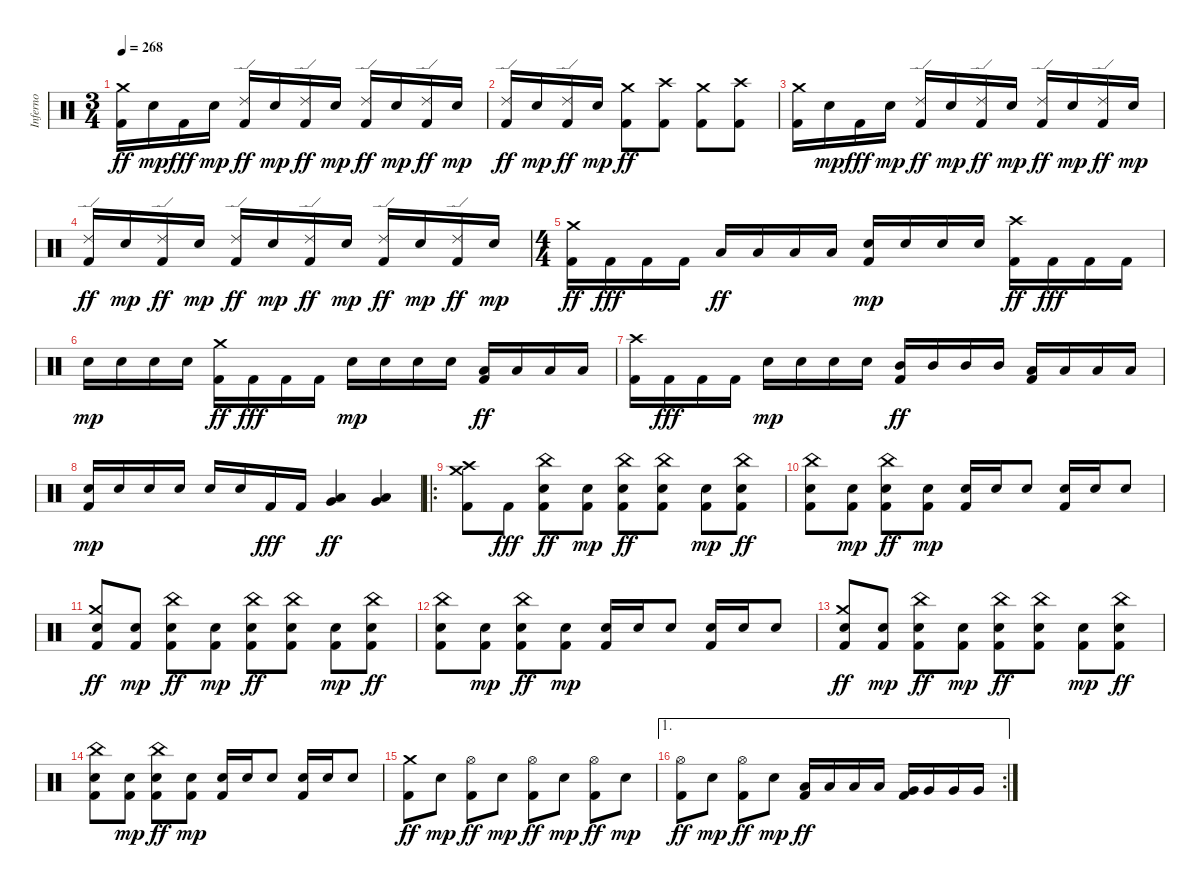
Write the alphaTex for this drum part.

\track ("Inferno" "Inferno") {instrument percussion}
\staff {score}
\articulation defaults
\ts (3 4)
\tempo 268
\clef neutral
\ks c
("Kick (hit) 2" "Crash medium (hit)").16{dy ff} "Electric Snare (hit)".16{dy mp} "Kick (hit) 2".16{dy fff} "Electric Snare (hit)".16{dy mp} ("Kick (hit) 2" "Ride (edge) 2").16{dy ff} "Electric Snare (hit)".16{dy mp} ("Kick (hit) 2" "Ride (edge) 2").16{dy ff} "Electric Snare (hit)".16{dy mp} ("Kick (hit) 2" "Ride (edge) 2").16{dy ff} "Electric Snare (hit)".16{dy mp} ("Kick (hit) 2" "Ride (edge) 2").16{dy ff} "Electric Snare (hit)".16{dy mp} |
("Kick (hit) 2" "Ride (edge) 2").16{dy ff} "Electric Snare (hit)".16{dy mp} ("Kick (hit) 2" "Ride (edge) 2").16{dy ff} "Electric Snare (hit)".16{dy mp} ("Kick (hit) 2" "Crash medium (hit)").8{dy ff} ("Kick (hit) 2" "Crash high (hit)").8 ("Kick (hit) 2" "Crash medium (hit)").8 ("Kick (hit) 2" "Crash high (hit)").8 |
("Kick (hit) 2" "Crash medium (hit)").16 "Electric Snare (hit)".16{dy mp} "Kick (hit) 2".16{dy fff} "Electric Snare (hit)".16{dy mp} ("Kick (hit) 2" "Ride (edge) 2").16{dy ff} "Electric Snare (hit)".16{dy mp} ("Kick (hit) 2" "Ride (edge) 2").16{dy ff} "Electric Snare (hit)".16{dy mp} ("Kick (hit) 2" "Ride (edge) 2").16{dy ff} "Electric Snare (hit)".16{dy mp} ("Kick (hit) 2" "Ride (edge) 2").16{dy ff} "Electric Snare (hit)".16{dy mp} |
("Kick (hit) 2" "Ride (edge) 2").16{dy ff} "Electric Snare (hit)".16{dy mp} ("Kick (hit) 2" "Ride (edge) 2").16{dy ff} "Electric Snare (hit)".16{dy mp} ("Kick (hit) 2" "Ride (edge) 2").16{dy ff} "Electric Snare (hit)".16{dy mp} ("Kick (hit) 2" "Ride (edge) 2").16{dy ff} "Electric Snare (hit)".16{dy mp} ("Kick (hit) 2" "Ride (edge) 2").16{dy ff} "Electric Snare (hit)".16{dy mp} ("Kick (hit) 2" "Ride (edge) 2").16{dy ff} "Electric Snare (hit)".16{dy mp} |
\ts (4 4)
("Kick (hit) 2" "Crash medium (hit)").16{dy ff} "Kick (hit) 2".16{dy fff} "Kick (hit) 2".16 "Kick (hit) 2".16 "Low Tom (hit)".16{dy ff} "Low Tom (hit)".16 "Low Tom (hit)".16 "Low Tom (hit)".16 ("Kick (hit) 2" "Electric Snare (hit)").16{dy mp} "Electric Snare (hit)".16 "Electric Snare (hit)".16 "Electric Snare (hit)".16 ("Kick (hit) 2" "Crash high (hit)").16{dy ff} "Kick (hit) 2".16{dy fff} "Kick (hit) 2".16 "Kick (hit) 2".16 |
"Electric Snare (hit)".16{dy mp} "Electric Snare (hit)".16 "Electric Snare (hit)".16 "Electric Snare (hit)".16 ("Kick (hit) 2" "Crash medium (hit)").16{dy ff} "Kick (hit) 2".16{dy fff} "Kick (hit) 2".16 "Kick (hit) 2".16 "Electric Snare (hit)".16{dy mp} "Electric Snare (hit)".16 "Electric Snare (hit)".16 "Electric Snare (hit)".16 ("Kick (hit) 2" "Low Tom (hit)").16{dy ff} "Low Tom (hit)".16 "Low Tom (hit)".16 "Low Tom (hit)".16 |
("Kick (hit) 2" "Crash high (hit)").16 "Kick (hit) 2".16{dy fff} "Kick (hit) 2".16 "Kick (hit) 2".16 "Electric Snare (hit)".16{dy mp} "Electric Snare (hit)".16 "Electric Snare (hit)".16 "Electric Snare (hit)".16 ("Kick (hit) 2" "Mid Tom (hit)").16{dy ff} "Mid Tom (hit)".16 "Mid Tom (hit)".16 "Mid Tom (hit)".16 ("Kick (hit) 2" "Low Tom (hit)").16 "Low Tom (hit)".16 "Low Tom (hit)".16 "Low Tom (hit)".16 |
("Kick (hit) 2" "Electric Snare (hit)").16{dy mp} "Electric Snare (hit)".16 "Electric Snare (hit)".16 "Electric Snare (hit)".16 "Electric Snare (hit)".16 "Electric Snare (hit)".16 "Kick (hit) 2".16{dy fff} "Kick (hit) 2".16 ("Very Low Tom (hit)" "Low Floor Tom (hit)").4{dy ff} ("Very Low Tom (hit)" "Low Floor Tom (hit)").4 |
\ro
("Kick (hit) 2" "Crash medium (hit)" "Crash high (hit)").8 "Kick (hit) 2".8{dy fff} ("Kick (hit) 2" "Electric Snare (hit)" "China (hit)").8{dy ff} ("Kick (hit) 2" "Electric Snare (hit)").8{dy mp} ("Kick (hit) 2" "Electric Snare (hit)" "China (hit)").8{dy ff} ("Kick (hit) 2" "Electric Snare (hit)" "China (hit)").8 ("Kick (hit) 2" "Electric Snare (hit)").8{dy mp} ("Kick (hit) 2" "Electric Snare (hit)" "China (hit)").8{dy ff} |
("Kick (hit) 2" "Electric Snare (hit)" "China (hit)").8 ("Kick (hit) 2" "Electric Snare (hit)").8{dy mp} ("Kick (hit) 2" "Electric Snare (hit)" "China (hit)").8{dy ff} ("Kick (hit) 2" "Electric Snare (hit)").8{dy mp} ("Kick (hit) 2" "Electric Snare (hit)").16 "Electric Snare (hit)".16 "Electric Snare (hit)".8 ("Kick (hit) 2" "Electric Snare (hit)").16 "Electric Snare (hit)".16 "Electric Snare (hit)".8 |
("Kick (hit) 2" "Electric Snare (hit)" "Crash medium (hit)").8{dy ff} ("Kick (hit) 2" "Electric Snare (hit)").8{dy mp} ("Kick (hit) 2" "Electric Snare (hit)" "China (hit)").8{dy ff} ("Kick (hit) 2" "Electric Snare (hit)").8{dy mp} ("Kick (hit) 2" "Electric Snare (hit)" "China (hit)").8{dy ff} ("Kick (hit) 2" "Electric Snare (hit)" "China (hit)").8 ("Kick (hit) 2" "Electric Snare (hit)").8{dy mp} ("Kick (hit) 2" "Electric Snare (hit)" "China (hit)").8{dy ff} |
("Kick (hit) 2" "Electric Snare (hit)" "China (hit)").8 ("Kick (hit) 2" "Electric Snare (hit)").8{dy mp} ("Kick (hit) 2" "Electric Snare (hit)" "China (hit)").8{dy ff} ("Kick (hit) 2" "Electric Snare (hit)").8{dy mp} ("Kick (hit) 2" "Electric Snare (hit)").16 "Electric Snare (hit)".16 "Electric Snare (hit)".8 ("Kick (hit) 2" "Electric Snare (hit)").16 "Electric Snare (hit)".16 "Electric Snare (hit)".8 |
("Kick (hit) 2" "Electric Snare (hit)" "Crash medium (hit)").8{dy ff} ("Kick (hit) 2" "Electric Snare (hit)").8{dy mp} ("Kick (hit) 2" "Electric Snare (hit)" "China (hit)").8{dy ff} ("Kick (hit) 2" "Electric Snare (hit)").8{dy mp} ("Kick (hit) 2" "Electric Snare (hit)" "China (hit)").8{dy ff} ("Kick (hit) 2" "Electric Snare (hit)" "China (hit)").8 ("Kick (hit) 2" "Electric Snare (hit)").8{dy mp} ("Kick (hit) 2" "Electric Snare (hit)" "China (hit)").8{dy ff} |
("Kick (hit) 2" "Electric Snare (hit)" "China (hit)").8 ("Kick (hit) 2" "Electric Snare (hit)").8{dy mp} ("Kick (hit) 2" "Electric Snare (hit)" "China (hit)").8{dy ff} ("Kick (hit) 2" "Electric Snare (hit)").8{dy mp} ("Kick (hit) 2" "Electric Snare (hit)").16 "Electric Snare (hit)".16 "Electric Snare (hit)".8 ("Kick (hit) 2" "Electric Snare (hit)").16 "Electric Snare (hit)".16 "Electric Snare (hit)".8 |
("Kick (hit) 2" "Crash medium (hit)").8{dy ff} "Electric Snare (hit)".8{dy mp} ("Kick (hit) 2" "Hi-Hat (open)").8{dy ff} "Electric Snare (hit)".8{dy mp} ("Kick (hit) 2" "Hi-Hat (open)").8{dy ff} "Electric Snare (hit)".8{dy mp} ("Kick (hit) 2" "Hi-Hat (open)").8{dy ff} "Electric Snare (hit)".8{dy mp} |
\ae 1
\rc 2
("Kick (hit) 2" "Hi-Hat (open)").8{dy ff} "Electric Snare (hit)".8{dy mp} ("Kick (hit) 2" "Hi-Hat (open)").8{dy ff} "Electric Snare (hit)".8{dy mp} ("Kick (hit) 2" "Low Tom (hit)").16{dy ff} "Low Tom (hit)".16 "Low Tom (hit)".16 "Low Tom (hit)".16 ("Kick (hit) 2" "Very Low Tom (hit)").16 "Very Low Tom (hit)".16 "Very Low Tom (hit)".16 "Very Low Tom (hit)".16
